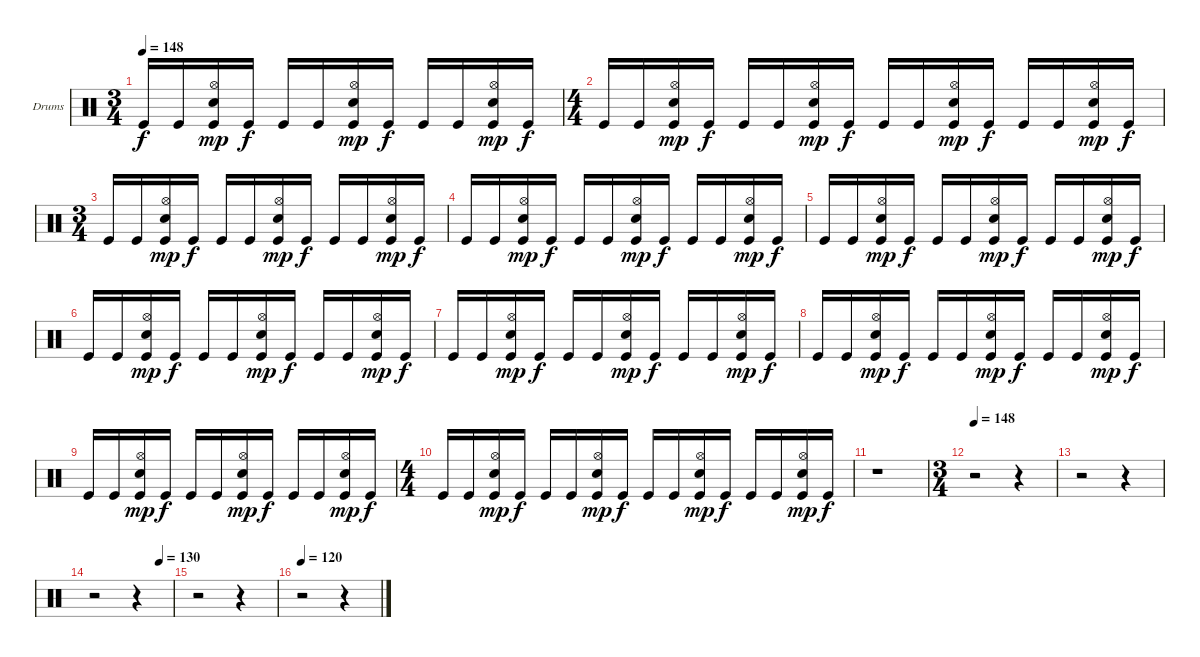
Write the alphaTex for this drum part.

\bracketExtendMode groupsimilarinstruments
\firstSystemTrackNameOrientation horizontal
\otherSystemsTrackNameOrientation horizontal
\track ("Drumkit" "Drums") {instrument percussion}
\staff {score}
\articulation defaults
\ts (3 4)
\tempo 148
\clef neutral
\ks c "Kick (hit)".16{dy f} "Kick (hit)".16
("Hi-Hat (open)" "Kick (hit)" "Snare (hit) 2").16{dy mp} "Kick (hit)".16{dy f} "Kick (hit)".16 "Kick (hit)".16 ("Hi-Hat (open)" "Kick (hit)" "Snare (hit) 2").16{dy mp} "Kick (hit)".16{dy f} "Kick (hit)".16 "Kick (hit)".16 ("Hi-Hat (open)" "Kick (hit)" "Snare (hit) 2").16{dy mp} "Kick (hit)".16{dy f} |
\ts (4 4)
\beaming (8 2 2 2 2)
"Kick (hit)".16 "Kick (hit)".16 ("Hi-Hat (open)" "Kick (hit)" "Snare (hit) 2").16{dy mp} "Kick (hit)".16{dy f} "Kick (hit)".16 "Kick (hit)".16 ("Hi-Hat (open)" "Kick (hit)" "Snare (hit) 2").16{dy mp} "Kick (hit)".16{dy f} "Kick (hit)".16 "Kick (hit)".16 ("Hi-Hat (open)" "Kick (hit)" "Snare (hit) 2").16{dy mp} "Kick (hit)".16{dy f} "Kick (hit)".16 "Kick (hit)".16 ("Hi-Hat (open)" "Kick (hit)" "Snare (hit) 2").16{dy mp} "Kick (hit)".16{dy f} |
\ts (3 4)
\beaming (8 2 2 2)
"Kick (hit)".16 "Kick (hit)".16 ("Hi-Hat (open)" "Kick (hit)" "Snare (hit) 2").16{dy mp} "Kick (hit)".16{dy f} "Kick (hit)".16 "Kick (hit)".16 ("Hi-Hat (open)" "Kick (hit)" "Snare (hit) 2").16{dy mp} "Kick (hit)".16{dy f} "Kick (hit)".16 "Kick (hit)".16 ("Hi-Hat (open)" "Kick (hit)" "Snare (hit) 2").16{dy mp} "Kick (hit)".16{dy f} |
"Kick (hit)".16 "Kick (hit)".16 ("Hi-Hat (open)" "Kick (hit)" "Snare (hit) 2").16{dy mp} "Kick (hit)".16{dy f} "Kick (hit)".16 "Kick (hit)".16 ("Hi-Hat (open)" "Kick (hit)" "Snare (hit) 2").16{dy mp} "Kick (hit)".16{dy f} "Kick (hit)".16 "Kick (hit)".16 ("Hi-Hat (open)" "Kick (hit)" "Snare (hit) 2").16{dy mp} "Kick (hit)".16{dy f} |
"Kick (hit)".16 "Kick (hit)".16 ("Hi-Hat (open)" "Kick (hit)" "Snare (hit) 2").16{dy mp} "Kick (hit)".16{dy f} "Kick (hit)".16 "Kick (hit)".16 ("Hi-Hat (open)" "Kick (hit)" "Snare (hit) 2").16{dy mp} "Kick (hit)".16{dy f} "Kick (hit)".16 "Kick (hit)".16 ("Hi-Hat (open)" "Kick (hit)" "Snare (hit) 2").16{dy mp} "Kick (hit)".16{dy f} |
"Kick (hit)".16 "Kick (hit)".16 ("Hi-Hat (open)" "Kick (hit)" "Snare (hit) 2").16{dy mp} "Kick (hit)".16{dy f} "Kick (hit)".16 "Kick (hit)".16 ("Hi-Hat (open)" "Kick (hit)" "Snare (hit) 2").16{dy mp} "Kick (hit)".16{dy f} "Kick (hit)".16 "Kick (hit)".16 ("Hi-Hat (open)" "Kick (hit)" "Snare (hit) 2").16{dy mp} "Kick (hit)".16{dy f} |
"Kick (hit)".16 "Kick (hit)".16 ("Hi-Hat (open)" "Kick (hit)" "Snare (hit) 2").16{dy mp} "Kick (hit)".16{dy f} "Kick (hit)".16 "Kick (hit)".16 ("Hi-Hat (open)" "Kick (hit)" "Snare (hit) 2").16{dy mp} "Kick (hit)".16{dy f} "Kick (hit)".16 "Kick (hit)".16 ("Hi-Hat (open)" "Kick (hit)" "Snare (hit) 2").16{dy mp} "Kick (hit)".16{dy f} |
"Kick (hit)".16 "Kick (hit)".16 ("Hi-Hat (open)" "Kick (hit)" "Snare (hit) 2").16{dy mp} "Kick (hit)".16{dy f} "Kick (hit)".16 "Kick (hit)".16 ("Hi-Hat (open)" "Kick (hit)" "Snare (hit) 2").16{dy mp} "Kick (hit)".16{dy f} "Kick (hit)".16 "Kick (hit)".16 ("Hi-Hat (open)" "Kick (hit)" "Snare (hit) 2").16{dy mp} "Kick (hit)".16{dy f} |
"Kick (hit)".16 "Kick (hit)".16 ("Hi-Hat (open)" "Kick (hit)" "Snare (hit) 2").16{dy mp} "Kick (hit)".16{dy f} "Kick (hit)".16 "Kick (hit)".16 ("Hi-Hat (open)" "Kick (hit)" "Snare (hit) 2").16{dy mp} "Kick (hit)".16{dy f} "Kick (hit)".16 "Kick (hit)".16 ("Hi-Hat (open)" "Kick (hit)" "Snare (hit) 2").16{dy mp} "Kick (hit)".16{dy f} |
\ts (4 4)
\beaming (8 2 2 2 2)
"Kick (hit)".16 "Kick (hit)".16 ("Hi-Hat (open)" "Kick (hit)" "Snare (hit) 2").16{dy mp} "Kick (hit)".16{dy f} "Kick (hit)".16 "Kick (hit)".16 ("Hi-Hat (open)" "Kick (hit)" "Snare (hit) 2").16{dy mp} "Kick (hit)".16{dy f} "Kick (hit)".16 "Kick (hit)".16 ("Hi-Hat (open)" "Kick (hit)" "Snare (hit) 2").16{dy mp} "Kick (hit)".16{dy f} "Kick (hit)".16 "Kick (hit)".16 ("Hi-Hat (open)" "Kick (hit)" "Snare (hit) 2").16{dy mp} "Kick (hit)".16{dy f} |
r.1 |
\ts (3 4)
\beaming (8 2 2 2)
\tempo 148
r.2 r.4 |
r.2 r.4 |
\tempo (130 0.833333)
r.2 r.4 |
r.2 r.4 |
\tempo 120
r.2 r.4
